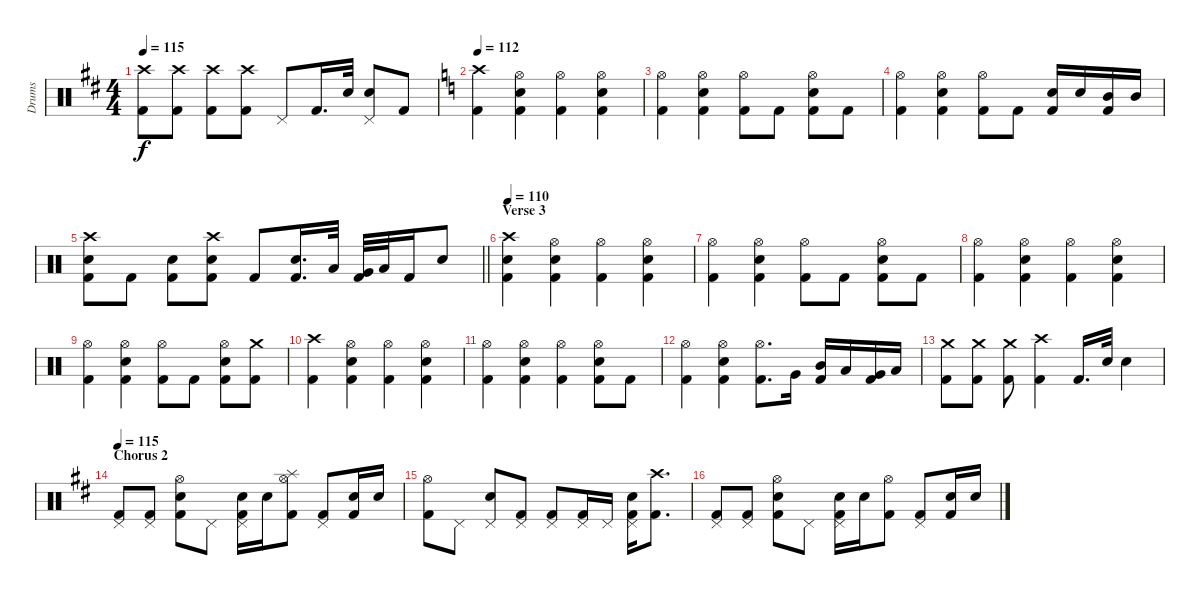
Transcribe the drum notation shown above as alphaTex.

\track ("Drums" "Drums") {instrument percussion}
\staff {score}
\articulation defaults
\ts (4 4)
\tempo 115
\clef neutral
\ks d
("Crash high (hit)" "Kick (hit) 2").8{dy f} ("Kick (hit) 2" "Crash high (hit)").8 ("Kick (hit) 2" "Crash high (hit)").8 ("Kick (hit) 2" "Crash high (hit)").8 "Pedal Hi-Hat (hit)".8 "Kick (hit) 2".16{d} "Snare (hit) 2".32 ("Pedal Hi-Hat (hit)" "Snare (hit) 2").8 "Kick (hit) 2".8 |
\tempo 112
\ks c
("Kick (hit) 2" "Crash high (hit)").4 ("Snare (hit) 2" "Hi-Hat (open)" "Kick (hit) 2").4 ("Hi-Hat (open)" "Kick (hit) 2").4 ("Snare (hit) 2" "Hi-Hat (open)" "Kick (hit) 2").4 |
("Hi-Hat (open)" "Kick (hit) 2").4 ("Hi-Hat (open)" "Snare (hit) 2" "Kick (hit) 2").4 ("Hi-Hat (open)" "Kick (hit) 2").8 "Kick (hit) 2".8 ("Snare (hit) 2" "Hi-Hat (open)" "Kick (hit) 2").8 "Kick (hit) 2".8 |
("Hi-Hat (open)" "Kick (hit) 2").4 ("Hi-Hat (open)" "Kick (hit) 2" "Snare (hit) 2").4 ("Hi-Hat (open)" "Kick (hit) 2").8 "Kick (hit) 2".8 ("Kick (hit) 2" "Snare (hit) 2").16 "Snare (hit) 2".16 ("Kick (hit) 2" "Mid Tom (hit)").16 "Mid Tom (hit)".16 |
\barLineRight lightlight
("Snare (hit) 2" "Crash high (hit)" "Kick (hit) 2").8 "Kick (hit) 2".8 ("Snare (hit) 2" "Kick (hit) 2").8 ("Snare (hit) 2" "Kick (hit) 2" "Crash high (hit)").8 "Kick (hit) 2".8 ("Snare (hit) 2" "Kick (hit) 2").16{d} "Low Tom (hit)".32 ("Kick (hit) 2" "Very Low Tom (hit)").32 "Low Floor Tom (hit)".32 "Kick (hit) 2".16 "Snare (hit) 2".8 |
\section ("" "Verse 3")
\tempo 110
("Snare (hit) 2" "Crash high (hit)" "Kick (hit) 2").4 ("Snare (hit) 2" "Hi-Hat (open)" "Kick (hit) 2").4 ("Hi-Hat (open)" "Kick (hit) 2").4 ("Snare (hit) 2" "Hi-Hat (open)" "Kick (hit) 2").4 |
("Hi-Hat (open)" "Kick (hit) 2").4 ("Snare (hit) 2" "Hi-Hat (open)" "Kick (hit) 2").4 ("Hi-Hat (open)" "Kick (hit) 2").8 "Kick (hit) 2".8 ("Snare (hit) 2" "Hi-Hat (open)" "Kick (hit) 2").8 "Kick (hit) 2".8 |
("Hi-Hat (open)" "Kick (hit) 2").4 ("Snare (hit) 2" "Hi-Hat (open)" "Kick (hit) 2").4 ("Hi-Hat (open)" "Kick (hit) 2").4 ("Snare (hit) 2" "Hi-Hat (open)" "Kick (hit) 2").4 |
("Hi-Hat (open)" "Kick (hit) 2").4 ("Snare (hit) 2" "Hi-Hat (open)" "Kick (hit) 2").4 ("Hi-Hat (open)" "Kick (hit) 2").8 "Kick (hit) 2".8 ("Snare (hit) 2" "Hi-Hat (open)" "Kick (hit) 2").8 ("Kick (hit) 2" "Crash medium (hit)").8 |
("Kick (hit) 2" "Crash high (hit)").4 ("Hi-Hat (open)" "Kick (hit) 2" "Snare (hit) 2").4 ("Hi-Hat (open)" "Kick (hit) 2").4 ("Snare (hit) 2" "Hi-Hat (open)" "Kick (hit) 2").4 |
("Hi-Hat (open)" "Kick (hit) 2").4 ("Snare (hit) 2" "Hi-Hat (open)" "Kick (hit) 2").4 ("Hi-Hat (open)" "Kick (hit) 2").4 ("Snare (hit) 2" "Kick (hit) 2" "Hi-Hat (open)").8 "Kick (hit) 2".8 |
("Hi-Hat (open)" "Kick (hit) 2").4 ("Snare (hit) 2" "Kick (hit) 2" "Hi-Hat (open)").4 ("Kick (hit) 2" "Hi-Hat (open)").8{d} "Very Low Tom (hit)".16 ("Kick (hit) 2" "Mid Tom (hit)").16 "Low Tom (hit)".16 ("Kick (hit) 2" "Very Low Tom (hit)").16 "Low Floor Tom (hit)".16 |
("Kick (hit) 2" "Crash medium (hit)").8 ("Kick (hit) 2" "Crash medium (hit)").8 ("Crash medium (hit)" "Kick (hit) 2").8 ("Kick (hit) 2" "Crash high (hit)").4 "Kick (hit) 2".16{d} "Snare (hit) 2".32 "Snare (hit) 2".4 |
\section ("" "Chorus 2")
\tempo 115
\ks d
("Pedal Hi-Hat (hit)" "Kick (hit) 2").8 ("Kick (hit) 2" "Pedal Hi-Hat (hit)").8 ("Snare (hit) 2" "Hi-Hat (open)" "Kick (hit) 2").8 "Pedal Hi-Hat (hit)".8 ("Kick (hit) 2" "Snare (hit) 2" "Pedal Hi-Hat (hit)").16 "Snare (hit) 2".16 ("Kick (hit) 2" "Splash (hit)" "Hi-Hat (open)").8 ("Kick (hit) 2" "Pedal Hi-Hat (hit)").8 ("Kick (hit) 2" "Snare (hit) 2").16 "Snare (hit) 2".16 |
("Hi-Hat (open)" "Kick (hit) 2").8 "Pedal Hi-Hat (hit)".8 ("Snare (hit) 2" "Pedal Hi-Hat (hit)").8 ("Kick (hit) 2" "Pedal Hi-Hat (hit)").8 ("Kick (hit) 2" "Pedal Hi-Hat (hit)").8 ("Pedal Hi-Hat (hit)" "Kick (hit) 2").16 "Pedal Hi-Hat (hit)".16 ("Pedal Hi-Hat (hit)" "Kick (hit) 2" "Snare (hit) 2").16 ("Kick (hit) 2" "Crash high (hit)").8{d} |
("Pedal Hi-Hat (hit)" "Kick (hit) 2").8 ("Kick (hit) 2" "Pedal Hi-Hat (hit)").8 ("Snare (hit) 2" "Hi-Hat (open)" "Kick (hit) 2").8 "Pedal Hi-Hat (hit)".8 ("Kick (hit) 2" "Snare (hit) 2" "Pedal Hi-Hat (hit)").16 "Snare (hit) 2".16 ("Kick (hit) 2" "Hi-Hat (open)").8 ("Kick (hit) 2" "Pedal Hi-Hat (hit)").8 ("Kick (hit) 2" "Snare (hit) 2").16 "Snare (hit) 2".16
